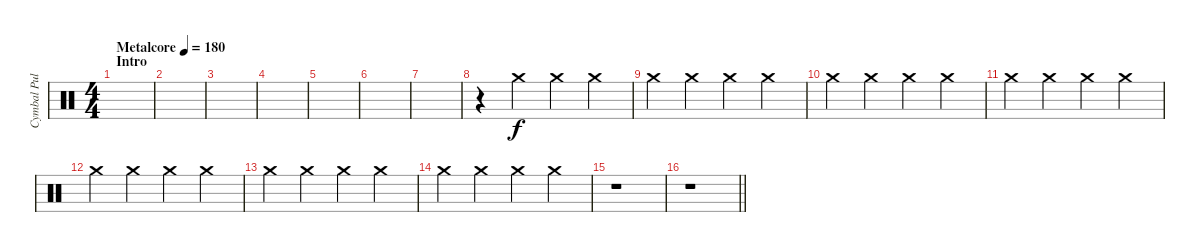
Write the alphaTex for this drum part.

\track ("Cymbal Pulse" "Cymbal Pul") {instrument percussion}
\staff {score}
\articulation defaults
\ts (4 4)
\section ("" "Intro")
\tempo (180 "Metalcore")
\clef neutral
\ks c
|
|
|
|
|
|
|
r.4 "Crash medium (hit)".4 "Crash medium (hit)".4 "Crash medium (hit)".4 |
"Crash medium (hit)".4 "Crash medium (hit)".4 "Crash medium (hit)".4 "Crash medium (hit)".4 |
"Crash medium (hit)".4 "Crash medium (hit)".4 "Crash medium (hit)".4 "Crash medium (hit)".4 |
"Crash medium (hit)".4 "Crash medium (hit)".4 "Crash medium (hit)".4 "Crash medium (hit)".4 |
"Crash medium (hit)".4 "Crash medium (hit)".4 "Crash medium (hit)".4 "Crash medium (hit)".4 |
"Crash medium (hit)".4 "Crash medium (hit)".4 "Crash medium (hit)".4 "Crash medium (hit)".4 |
"Crash medium (hit)".4 "Crash medium (hit)".4 "Crash medium (hit)".4 "Crash medium (hit)".4 |
r.1 |
\barLineRight lightlight
r.1
